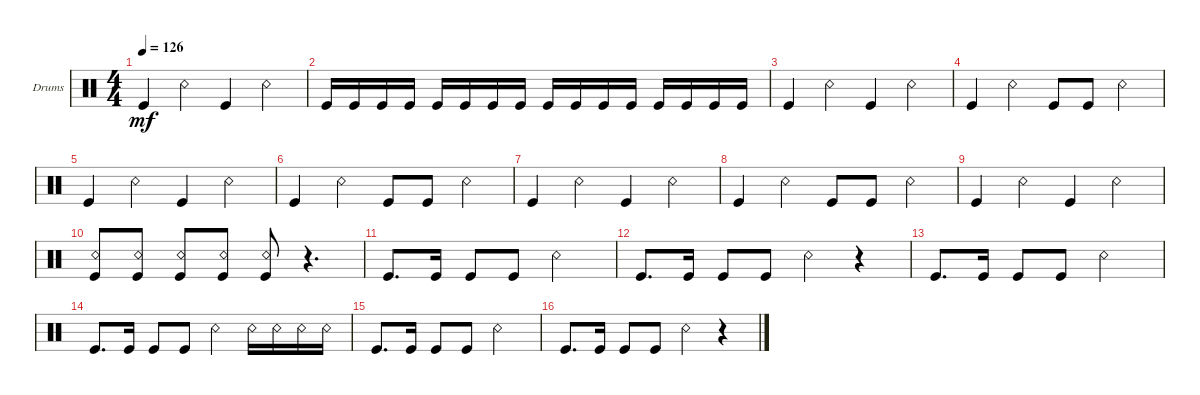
\defaultSystemsLayout 4
\bracketExtendMode groupsimilarinstruments
\firstSystemTrackNameOrientation horizontal
\otherSystemsTrackNameOrientation horizontal
\track ("Drumkit" "Drums") {instrument percussion}
\staff {score}
\articulation defaults
\ts (4 4)
\tempo 126
\clef neutral
\ks c "Kick (hit)".4{dy mf} "Snare (rim shot)".4 "Kick (hit)".4 "Snare (rim shot)".4
|
"Kick (hit)".16 "Kick (hit)".16 "Kick (hit)".16 "Kick (hit)".16 "Kick (hit)".16 "Kick (hit)".16 "Kick (hit)".16 "Kick (hit)".16 "Kick (hit)".16 "Kick (hit)".16 "Kick (hit)".16 "Kick (hit)".16 "Kick (hit)".16 "Kick (hit)".16 "Kick (hit)".16 "Kick (hit)".16 |
"Kick (hit)".4 "Snare (rim shot)".4 "Kick (hit)".4 "Snare (rim shot)".4 |
"Kick (hit)".4 "Snare (rim shot)".4 "Kick (hit)".8 "Kick (hit)".8 "Snare (rim shot)".4 |
"Kick (hit)".4 "Snare (rim shot)".4 "Kick (hit)".4 "Snare (rim shot)".4 |
"Kick (hit)".4 "Snare (rim shot)".4 "Kick (hit)".8 "Kick (hit)".8 "Snare (rim shot)".4 |
"Kick (hit)".4 "Snare (rim shot)".4 "Kick (hit)".4 "Snare (rim shot)".4 |
"Kick (hit)".4 "Snare (rim shot)".4 "Kick (hit)".8 "Kick (hit)".8 "Snare (rim shot)".4 |
"Kick (hit)".4 "Snare (rim shot)".4 "Kick (hit)".4 "Snare (rim shot)".4 |
("Kick (hit)" "Snare (rim shot)").8 ("Snare (rim shot)" "Kick (hit)").8 ("Kick (hit)" "Snare (rim shot)").8 ("Kick (hit)" "Snare (rim shot)").8 ("Snare (rim shot)" "Kick (hit)").8 r.4{d} |
"Kick (hit)".8{d} "Kick (hit)".16 "Kick (hit)".8 "Kick (hit)".8 "Snare (rim shot)".2 |
"Kick (hit)".8{d} "Kick (hit)".16 "Kick (hit)".8 "Kick (hit)".8 "Snare (rim shot)".4 r.4 |
"Kick (hit)".8{d} "Kick (hit)".16 "Kick (hit)".8 "Kick (hit)".8 "Snare (rim shot)".2 |
"Kick (hit)".8{d} "Kick (hit)".16 "Kick (hit)".8 "Kick (hit)".8 "Snare (rim shot)".4 "Snare (rim shot)".16 "Snare (rim shot)".16 "Snare (rim shot)".16 "Snare (rim shot)".16 |
"Kick (hit)".8{d} "Kick (hit)".16 "Kick (hit)".8 "Kick (hit)".8 "Snare (rim shot)".2 |
"Kick (hit)".8{d} "Kick (hit)".16 "Kick (hit)".8 "Kick (hit)".8 "Snare (rim shot)".4 r.4
